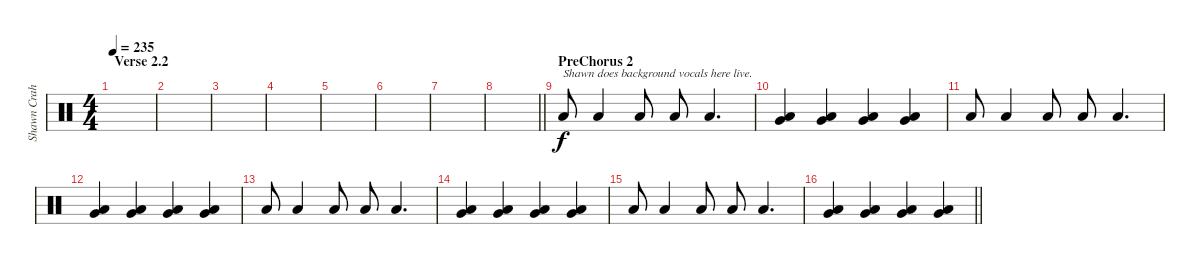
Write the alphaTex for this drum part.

\track ("Shawn Crahan" "Shawn Crah") {instrument percussion}
\staff {score}
\articulation defaults
\ts (4 4)
\section ("" "Verse 2.2")
\tempo 235
\clef neutral
\ks c
|
|
|
|
|
|
|
\barLineRight lightlight
|
\section ("" "PreChorus 2")
"Low Floor Tom (hit)".8{txt "Shawn does background vocals here live."} "Low Floor Tom (hit)".4 "Low Floor Tom (hit)".8 "Low Floor Tom (hit)".8 "Low Floor Tom (hit)".4{d} |
("Very Low Tom (hit)" "Low Floor Tom (hit)").4 ("Very Low Tom (hit)" "Low Floor Tom (hit)").4 ("Very Low Tom (hit)" "Low Floor Tom (hit)").4 ("Very Low Tom (hit)" "Low Floor Tom (hit)").4 |
"Low Floor Tom (hit)".8 "Low Floor Tom (hit)".4 "Low Floor Tom (hit)".8 "Low Floor Tom (hit)".8 "Low Floor Tom (hit)".4{d} |
("Very Low Tom (hit)" "Low Floor Tom (hit)").4 ("Very Low Tom (hit)" "Low Floor Tom (hit)").4 ("Very Low Tom (hit)" "Low Floor Tom (hit)").4 ("Very Low Tom (hit)" "Low Floor Tom (hit)").4 |
"Low Floor Tom (hit)".8 "Low Floor Tom (hit)".4 "Low Floor Tom (hit)".8 "Low Floor Tom (hit)".8 "Low Floor Tom (hit)".4{d} |
("Very Low Tom (hit)" "Low Floor Tom (hit)").4 ("Very Low Tom (hit)" "Low Floor Tom (hit)").4 ("Very Low Tom (hit)" "Low Floor Tom (hit)").4 ("Very Low Tom (hit)" "Low Floor Tom (hit)").4 |
"Low Floor Tom (hit)".8 "Low Floor Tom (hit)".4 "Low Floor Tom (hit)".8 "Low Floor Tom (hit)".8 "Low Floor Tom (hit)".4{d} |
\barLineRight lightlight
("Very Low Tom (hit)" "Low Floor Tom (hit)").4 ("Very Low Tom (hit)" "Low Floor Tom (hit)").4 ("Very Low Tom (hit)" "Low Floor Tom (hit)").4 ("Very Low Tom (hit)" "Low Floor Tom (hit)").4
